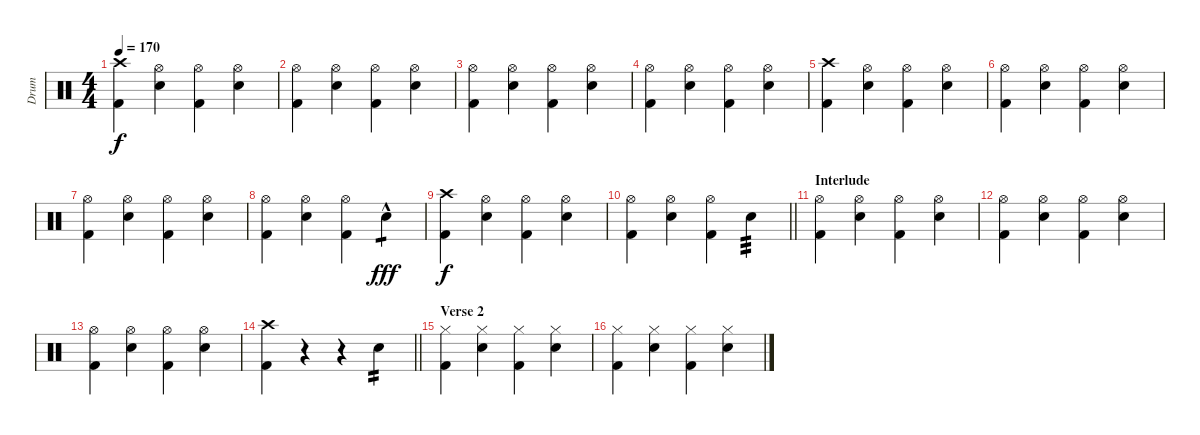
\track ("Drum" "Drum") {instrument percussion}
\staff {score}
\articulation defaults
\ts (4 4)
\tempo 170
\clef neutral
\ks c
("Crash high (hit)" "Kick (hit) 2").4{dy f} ("Hi-Hat (open)" "Electric Snare (hit)").4 ("Hi-Hat (open)" "Kick (hit) 2").4 ("Hi-Hat (open)" "Electric Snare (hit)").4 |
("Hi-Hat (open)" "Kick (hit) 2").4 ("Hi-Hat (open)" "Electric Snare (hit)").4 ("Hi-Hat (open)" "Kick (hit) 2").4 ("Hi-Hat (open)" "Electric Snare (hit)").4 |
("Hi-Hat (open)" "Kick (hit) 2").4 ("Hi-Hat (open)" "Electric Snare (hit)").4 ("Hi-Hat (open)" "Kick (hit) 2").4 ("Hi-Hat (open)" "Electric Snare (hit)").4 |
("Hi-Hat (open)" "Kick (hit) 2").4 ("Hi-Hat (open)" "Electric Snare (hit)").4 ("Hi-Hat (open)" "Kick (hit) 2").4 ("Hi-Hat (open)" "Electric Snare (hit)").4 |
("Crash high (hit)" "Kick (hit) 2").4 ("Hi-Hat (open)" "Electric Snare (hit)").4 ("Hi-Hat (open)" "Kick (hit) 2").4 ("Hi-Hat (open)" "Electric Snare (hit)").4 |
("Hi-Hat (open)" "Kick (hit) 2").4 ("Hi-Hat (open)" "Electric Snare (hit)").4 ("Hi-Hat (open)" "Kick (hit) 2").4 ("Hi-Hat (open)" "Electric Snare (hit)").4 |
("Hi-Hat (open)" "Kick (hit) 2").4 ("Hi-Hat (open)" "Electric Snare (hit)").4 ("Hi-Hat (open)" "Kick (hit) 2").4 ("Hi-Hat (open)" "Electric Snare (hit)").4 |
("Hi-Hat (open)" "Kick (hit) 2").4 ("Hi-Hat (open)" "Electric Snare (hit)").4 ("Hi-Hat (open)" "Kick (hit) 2").4 "Electric Snare (hit)"{hac}.4{tp 1 dy fff} |
("Crash high (hit)" "Kick (hit) 2").4{dy f} ("Hi-Hat (open)" "Electric Snare (hit)").4 ("Hi-Hat (open)" "Kick (hit) 2").4 ("Hi-Hat (open)" "Electric Snare (hit)").4 |
\barLineRight lightlight
("Hi-Hat (open)" "Kick (hit) 2").4 ("Hi-Hat (open)" "Electric Snare (hit)").4 ("Hi-Hat (open)" "Kick (hit) 2").4 "Electric Snare (hit)".4{tp 3} |
\section ("" "Interlude")
("Hi-Hat (open)" "Kick (hit) 2").4 ("Hi-Hat (open)" "Electric Snare (hit)").4 ("Hi-Hat (open)" "Kick (hit) 2").4 ("Hi-Hat (open)" "Electric Snare (hit)").4 |
("Hi-Hat (open)" "Kick (hit) 2").4 ("Hi-Hat (open)" "Electric Snare (hit)").4 ("Hi-Hat (open)" "Kick (hit) 2").4 ("Hi-Hat (open)" "Electric Snare (hit)").4 |
("Hi-Hat (open)" "Kick (hit) 2").4 ("Hi-Hat (open)" "Electric Snare (hit)").4 ("Hi-Hat (open)" "Kick (hit) 2").4 ("Hi-Hat (open)" "Electric Snare (hit)").4 |
\barLineRight lightlight
("Crash high (hit)" "Kick (hit) 2").4 r.4 r.4 "Electric Snare (hit)".4{tp 2} |
\section ("" "Verse 2")
("Hi-Hat (closed)" "Kick (hit) 2").4 ("Hi-Hat (closed)" "Electric Snare (hit)").4 ("Hi-Hat (closed)" "Kick (hit) 2").4 ("Hi-Hat (closed)" "Electric Snare (hit)").4 |
("Hi-Hat (closed)" "Kick (hit) 2").4 ("Hi-Hat (closed)" "Electric Snare (hit)").4 ("Hi-Hat (closed)" "Kick (hit) 2").4 ("Hi-Hat (closed)" "Electric Snare (hit)").4
